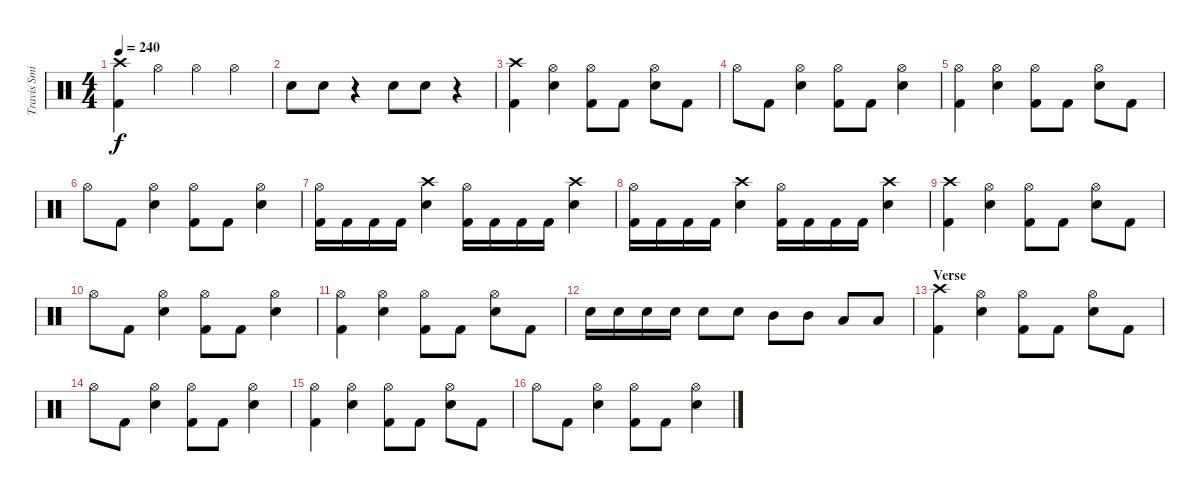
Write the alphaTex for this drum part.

\track ("Travis Smith (Drums)" "Travis Smi") {instrument percussion}
\staff {score}
\articulation defaults
\ts (4 4)
\tempo 240
\clef neutral
\ks c
("Kick (hit) 2" "Crash high (hit)").4{dy f} "Hi-Hat (open)".4 "Hi-Hat (open)".4 "Hi-Hat (open)".4 |
"Snare (hit) 2".8 "Snare (hit) 2".8 r.4 "Snare (hit) 2".8 "Snare (hit) 2".8 r.4 |
("Kick (hit) 2" "Crash high (hit)").4 ("Snare (hit) 2" "Hi-Hat (open)").4 ("Kick (hit) 2" "Hi-Hat (open)").8 "Kick (hit) 2".8 ("Snare (hit) 2" "Hi-Hat (open)").8 "Kick (hit) 2".8 |
"Hi-Hat (open)".8 "Kick (hit) 2".8 ("Snare (hit) 2" "Hi-Hat (open)").4 ("Kick (hit) 2" "Hi-Hat (open)").8 "Kick (hit) 2".8 ("Snare (hit) 2" "Hi-Hat (open)").4 |
("Kick (hit) 2" "Hi-Hat (open)").4 ("Snare (hit) 2" "Hi-Hat (open)").4 ("Kick (hit) 2" "Hi-Hat (open)").8 "Kick (hit) 2".8 ("Snare (hit) 2" "Hi-Hat (open)").8 "Kick (hit) 2".8 |
"Hi-Hat (open)".8 "Kick (hit) 2".8 ("Snare (hit) 2" "Hi-Hat (open)").4 ("Kick (hit) 2" "Hi-Hat (open)").8 "Kick (hit) 2".8 ("Snare (hit) 2" "Hi-Hat (open)").4 |
("Kick (hit) 2" "Hi-Hat (open)").16 "Kick (hit) 2".16 "Kick (hit) 2".16 "Kick (hit) 2".16 ("Snare (hit) 2" "Crash high (hit)").4 ("Kick (hit) 2" "Hi-Hat (open)").16 "Kick (hit) 2".16 "Kick (hit) 2".16 "Kick (hit) 2".16 ("Snare (hit) 2" "Crash high (hit)").4 |
("Kick (hit) 2" "Hi-Hat (open)").16 "Kick (hit) 2".16 "Kick (hit) 2".16 "Kick (hit) 2".16 ("Snare (hit) 2" "Crash high (hit)").4 ("Kick (hit) 2" "Hi-Hat (open)").16 "Kick (hit) 2".16 "Kick (hit) 2".16 "Kick (hit) 2".16 ("Snare (hit) 2" "Crash high (hit)").4 |
("Kick (hit) 2" "Crash high (hit)").4 ("Snare (hit) 2" "Hi-Hat (open)").4 ("Kick (hit) 2" "Hi-Hat (open)").8 "Kick (hit) 2".8 ("Snare (hit) 2" "Hi-Hat (open)").8 "Kick (hit) 2".8 |
"Hi-Hat (open)".8 "Kick (hit) 2".8 ("Snare (hit) 2" "Hi-Hat (open)").4 ("Kick (hit) 2" "Hi-Hat (open)").8 "Kick (hit) 2".8 ("Snare (hit) 2" "Hi-Hat (open)").4 |
("Kick (hit) 2" "Hi-Hat (open)").4 ("Snare (hit) 2" "Hi-Hat (open)").4 ("Kick (hit) 2" "Hi-Hat (open)").8 "Kick (hit) 2".8 ("Snare (hit) 2" "Hi-Hat (open)").8 "Kick (hit) 2".8 |
"Snare (hit) 2".16 "Snare (hit) 2".16 "Snare (hit) 2".16 "Snare (hit) 2".16 "Snare (hit) 2".8 "Snare (hit) 2".8 "Mid Tom (hit)".8 "Mid Tom (hit)".8 "Low Tom (hit)".8 "Low Tom (hit)".8 |
\section ("" "Verse")
("Kick (hit) 2" "Crash high (hit)").4 ("Snare (hit) 2" "Hi-Hat (open)").4 ("Kick (hit) 2" "Hi-Hat (open)").8 "Kick (hit) 2".8 ("Snare (hit) 2" "Hi-Hat (open)").8 "Kick (hit) 2".8 |
"Hi-Hat (open)".8 "Kick (hit) 2".8 ("Snare (hit) 2" "Hi-Hat (open)").4 ("Kick (hit) 2" "Hi-Hat (open)").8 "Kick (hit) 2".8 ("Snare (hit) 2" "Hi-Hat (open)").4 |
("Kick (hit) 2" "Hi-Hat (open)").4 ("Snare (hit) 2" "Hi-Hat (open)").4 ("Kick (hit) 2" "Hi-Hat (open)").8 "Kick (hit) 2".8 ("Snare (hit) 2" "Hi-Hat (open)").8 "Kick (hit) 2".8 |
"Hi-Hat (open)".8 "Kick (hit) 2".8 ("Snare (hit) 2" "Hi-Hat (open)").4 ("Kick (hit) 2" "Hi-Hat (open)").8 "Kick (hit) 2".8 ("Snare (hit) 2" "Hi-Hat (open)").4
